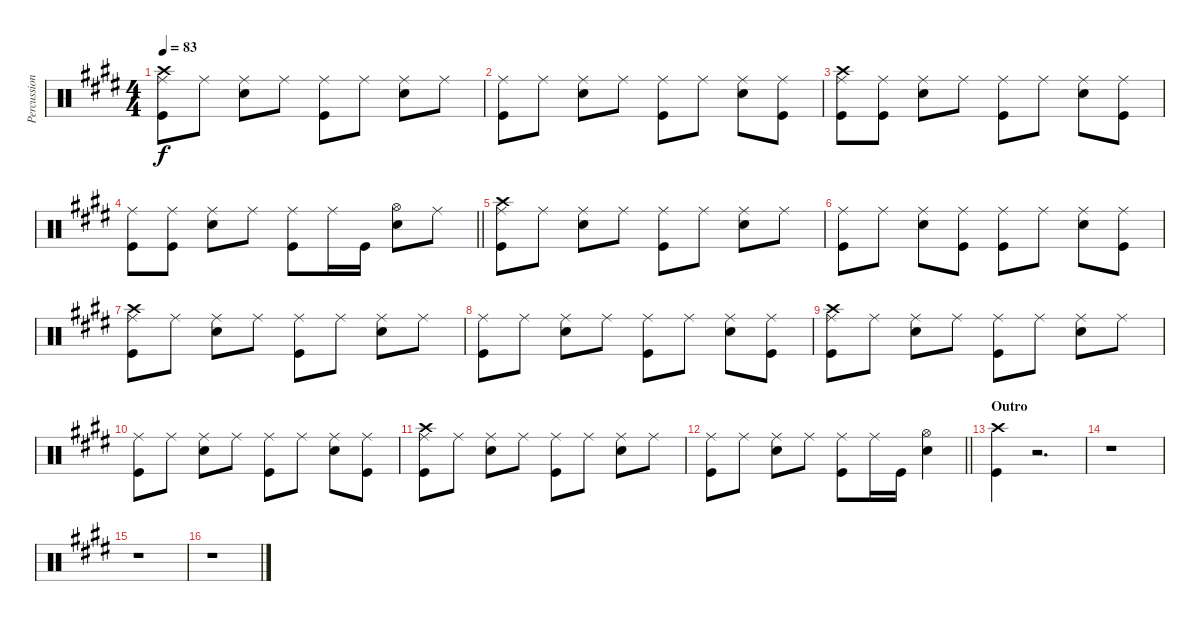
\track ("Percussion" "Percussion") {instrument percussion}
\staff {score}
\articulation defaults
\ts (4 4)
\tempo 83
\clef neutral
\ks e
("Crash high (hit)" "Ride (middle)" "Kick (hit)").8{dy f} "Ride (middle)".8 ("Ride (middle)" "Electric Snare (hit)").8 "Ride (middle)".8 ("Ride (middle)" "Kick (hit)").8 "Ride (middle)".8 ("Ride (middle)" "Electric Snare (hit)").8 "Ride (middle)".8 |
("Ride (middle)" "Kick (hit)").8 "Ride (middle)".8 ("Ride (middle)" "Electric Snare (hit)").8 "Ride (middle)".8 ("Ride (middle)" "Kick (hit)").8 "Ride (middle)".8 ("Ride (middle)" "Electric Snare (hit)").8 ("Ride (middle)" "Kick (hit)").8 |
("Crash high (hit)" "Ride (middle)" "Kick (hit)").8 ("Ride (middle)" "Kick (hit)").8 ("Ride (middle)" "Electric Snare (hit)").8 "Ride (middle)".8 ("Ride (middle)" "Kick (hit)").8 "Ride (middle)".8 ("Ride (middle)" "Electric Snare (hit)").8 ("Ride (middle)" "Kick (hit)").8 |
\barLineRight lightlight
("Ride (middle)" "Kick (hit)").8 ("Ride (middle)" "Kick (hit)").8 ("Ride (middle)" "Electric Snare (hit)").8 "Ride (middle)".8 ("Ride (middle)" "Kick (hit)").8 "Ride (middle)".16 "Kick (hit)".16 ("Hi-Hat (open)" "Electric Snare (hit)").8 "Ride (middle)".8 |
("Crash high (hit)" "Ride (middle)" "Kick (hit)").8 "Ride (middle)".8 ("Ride (middle)" "Electric Snare (hit)").8 "Ride (middle)".8 ("Ride (middle)" "Kick (hit)").8 "Ride (middle)".8 ("Ride (middle)" "Electric Snare (hit)").8 "Ride (middle)".8 |
("Ride (middle)" "Kick (hit)").8 "Ride (middle)".8 ("Ride (middle)" "Electric Snare (hit)").8 ("Ride (middle)" "Kick (hit)").8 ("Ride (middle)" "Kick (hit)").8 "Ride (middle)".8 ("Ride (middle)" "Electric Snare (hit)").8 ("Ride (middle)" "Kick (hit)").8 |
("Crash high (hit)" "Ride (middle)" "Kick (hit)").8 "Ride (middle)".8 ("Ride (middle)" "Electric Snare (hit)").8 "Ride (middle)".8 ("Ride (middle)" "Kick (hit)").8 "Ride (middle)".8 ("Ride (middle)" "Electric Snare (hit)").8 "Ride (middle)".8 |
("Ride (middle)" "Kick (hit)").8 "Ride (middle)".8 ("Ride (middle)" "Electric Snare (hit)").8 "Ride (middle)".8 ("Ride (middle)" "Kick (hit)").8 "Ride (middle)".8 ("Ride (middle)" "Electric Snare (hit)").8 ("Ride (middle)" "Kick (hit)").8 |
("Crash high (hit)" "Ride (middle)" "Kick (hit)").8 "Ride (middle)".8 ("Ride (middle)" "Electric Snare (hit)").8 "Ride (middle)".8 ("Ride (middle)" "Kick (hit)").8 "Ride (middle)".8 ("Ride (middle)" "Electric Snare (hit)").8 "Ride (middle)".8 |
("Ride (middle)" "Kick (hit)").8 "Ride (middle)".8 ("Ride (middle)" "Electric Snare (hit)").8 "Ride (middle)".8 ("Ride (middle)" "Kick (hit)").8 "Ride (middle)".8 ("Ride (middle)" "Electric Snare (hit)").8 ("Ride (middle)" "Kick (hit)").8 |
("Crash high (hit)" "Ride (middle)" "Kick (hit)").8 "Ride (middle)".8 ("Ride (middle)" "Electric Snare (hit)").8 "Ride (middle)".8 ("Ride (middle)" "Kick (hit)").8 "Ride (middle)".8 ("Ride (middle)" "Electric Snare (hit)").8 "Ride (middle)".8 |
\barLineRight lightlight
("Ride (middle)" "Kick (hit)").8 "Ride (middle)".8 ("Ride (middle)" "Electric Snare (hit)").8 "Ride (middle)".8 ("Ride (middle)" "Kick (hit)").8 "Ride (middle)".16 "Kick (hit)".16 ("Hi-Hat (open)" "Electric Snare (hit)").4 |
\section ("" "Outro")
("Crash high (hit)" "Kick (hit)").4 r.2{d} |
r.1 |
r.1 |
r.1
